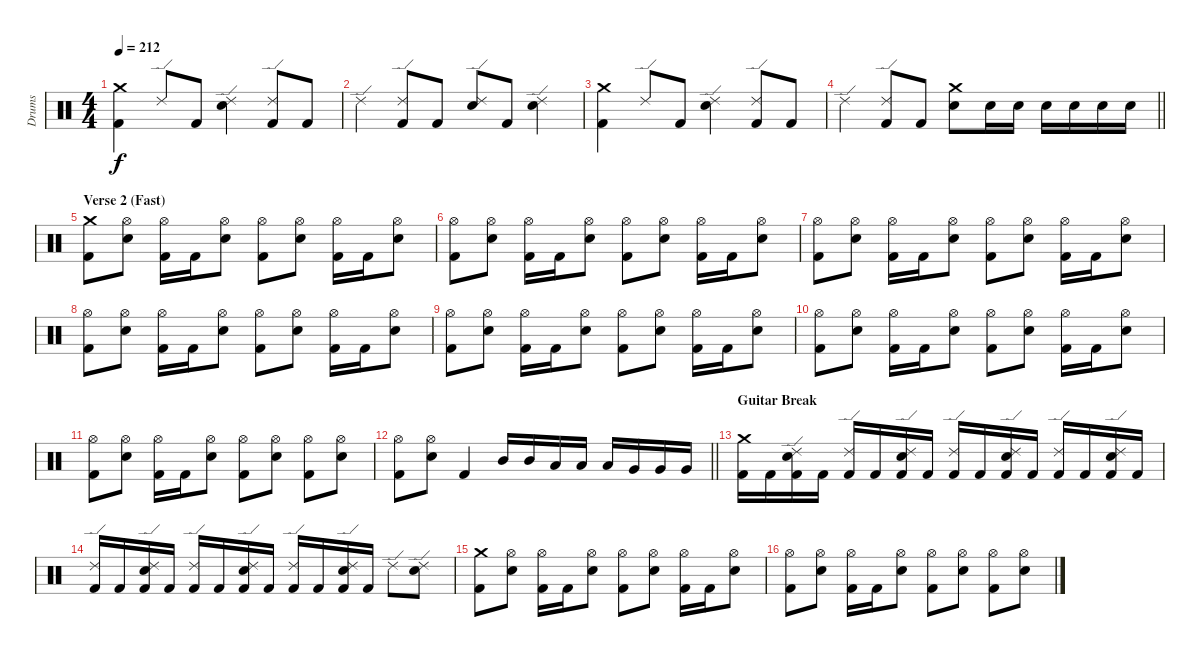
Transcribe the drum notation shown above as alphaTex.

\track ("Drums" "Drums") {instrument percussion}
\staff {score}
\articulation defaults
\ts (4 4)
\tempo 212
\clef neutral
\ks c
("Crash medium (hit)" "Kick (hit) 2").4{dy f} "Ride (edge) 2".8 "Kick (hit) 2".8 ("Ride (edge) 2" "Electric Snare (hit)").4 ("Ride (edge) 2" "Kick (hit) 2").8 "Kick (hit) 2".8 |
"Ride (edge) 2".4 ("Ride (edge) 2" "Kick (hit) 2").8 "Kick (hit) 2".8 ("Ride (edge) 2" "Electric Snare (hit)").8 "Kick (hit) 2".8 ("Ride (edge) 2" "Electric Snare (hit)").4 |
("Crash medium (hit)" "Kick (hit) 2").4 "Ride (edge) 2".8 "Kick (hit) 2".8 ("Ride (edge) 2" "Electric Snare (hit)").4 ("Ride (edge) 2" "Kick (hit) 2").8 "Kick (hit) 2".8 |
\barLineRight lightlight "Ride (edge) 2".4
("Ride (edge) 2" "Kick (hit) 2").8 "Kick (hit) 2".8 ("Crash medium (hit)" "Electric Snare (hit)").8 "Electric Snare (hit)".16 "Electric Snare (hit)".16 "Electric Snare (hit)".16 "Electric Snare (hit)".16 "Electric Snare (hit)".16 "Electric Snare (hit)".16 |
\section ("" "Verse 2 (Fast)")
("Crash medium (hit)" "Kick (hit) 2").8 ("Hi-Hat (open)" "Electric Snare (hit)").8 ("Hi-Hat (open)" "Kick (hit) 2").16 "Kick (hit) 2".16 ("Hi-Hat (open)" "Electric Snare (hit)").8 ("Hi-Hat (open)" "Kick (hit) 2").8 ("Hi-Hat (open)" "Electric Snare (hit)").8 ("Hi-Hat (open)" "Kick (hit) 2").16 "Kick (hit) 2".16 ("Hi-Hat (open)" "Electric Snare (hit)").8 |
("Hi-Hat (open)" "Kick (hit) 2").8 ("Hi-Hat (open)" "Electric Snare (hit)").8 ("Hi-Hat (open)" "Kick (hit) 2").16 "Kick (hit) 2".16 ("Hi-Hat (open)" "Electric Snare (hit)").8 ("Hi-Hat (open)" "Kick (hit) 2").8 ("Hi-Hat (open)" "Electric Snare (hit)").8 ("Hi-Hat (open)" "Kick (hit) 2").16 "Kick (hit) 2".16 ("Hi-Hat (open)" "Electric Snare (hit)").8 |
("Hi-Hat (open)" "Kick (hit) 2").8 ("Hi-Hat (open)" "Electric Snare (hit)").8 ("Hi-Hat (open)" "Kick (hit) 2").16 "Kick (hit) 2".16 ("Hi-Hat (open)" "Electric Snare (hit)").8 ("Hi-Hat (open)" "Kick (hit) 2").8 ("Hi-Hat (open)" "Electric Snare (hit)").8 ("Hi-Hat (open)" "Kick (hit) 2").16 "Kick (hit) 2".16 ("Hi-Hat (open)" "Electric Snare (hit)").8 |
("Hi-Hat (open)" "Kick (hit) 2").8 ("Hi-Hat (open)" "Electric Snare (hit)").8 ("Hi-Hat (open)" "Kick (hit) 2").16 "Kick (hit) 2".16 ("Hi-Hat (open)" "Electric Snare (hit)").8 ("Hi-Hat (open)" "Kick (hit) 2").8 ("Hi-Hat (open)" "Electric Snare (hit)").8 ("Hi-Hat (open)" "Kick (hit) 2").16 "Kick (hit) 2".16 ("Hi-Hat (open)" "Electric Snare (hit)").8 |
("Hi-Hat (open)" "Kick (hit) 2").8 ("Hi-Hat (open)" "Electric Snare (hit)").8 ("Hi-Hat (open)" "Kick (hit) 2").16 "Kick (hit) 2".16 ("Hi-Hat (open)" "Electric Snare (hit)").8 ("Hi-Hat (open)" "Kick (hit) 2").8 ("Hi-Hat (open)" "Electric Snare (hit)").8 ("Hi-Hat (open)" "Kick (hit) 2").16 "Kick (hit) 2".16 ("Hi-Hat (open)" "Electric Snare (hit)").8 |
("Hi-Hat (open)" "Kick (hit) 2").8 ("Hi-Hat (open)" "Electric Snare (hit)").8 ("Hi-Hat (open)" "Kick (hit) 2").16 "Kick (hit) 2".16 ("Hi-Hat (open)" "Electric Snare (hit)").8 ("Hi-Hat (open)" "Kick (hit) 2").8 ("Hi-Hat (open)" "Electric Snare (hit)").8 ("Hi-Hat (open)" "Kick (hit) 2").16 "Kick (hit) 2".16 ("Hi-Hat (open)" "Electric Snare (hit)").8 |
("Hi-Hat (open)" "Kick (hit) 2").8 ("Hi-Hat (open)" "Electric Snare (hit)").8 ("Hi-Hat (open)" "Kick (hit) 2").16 "Kick (hit) 2".16 ("Hi-Hat (open)" "Electric Snare (hit)").8 ("Hi-Hat (open)" "Kick (hit) 2").8 ("Hi-Hat (open)" "Electric Snare (hit)").8 ("Hi-Hat (open)" "Kick (hit) 2").8 ("Hi-Hat (open)" "Electric Snare (hit)").8 |
\barLineRight lightlight
("Hi-Hat (open)" "Kick (hit) 2").8 ("Hi-Hat (open)" "Electric Snare (hit)").8 "Kick (hit) 2".4 "Mid Tom (hit)".16 "Mid Tom (hit)".16 "Low Tom (hit)".16 "Low Tom (hit)".16 "Low Tom (hit)".16 "Very Low Tom (hit)".16 "Very Low Tom (hit)".16 "Very Low Tom (hit)".16 |
\section ("" "Guitar Break")
("Crash medium (hit)" "Kick (hit) 2").16 "Kick (hit) 2".16 ("Ride (edge) 2" "Electric Snare (hit)" "Kick (hit) 2").16 "Kick (hit) 2".16 ("Ride (edge) 2" "Kick (hit) 2").16 "Kick (hit) 2".16 ("Ride (edge) 2" "Electric Snare (hit)" "Kick (hit) 2").16 "Kick (hit) 2".16 ("Ride (edge) 2" "Kick (hit) 2").16 "Kick (hit) 2".16 ("Ride (edge) 2" "Electric Snare (hit)" "Kick (hit) 2").16 "Kick (hit) 2".16 ("Ride (edge) 2" "Kick (hit) 2").16 "Kick (hit) 2".16 ("Ride (edge) 2" "Electric Snare (hit)" "Kick (hit) 2").16 "Kick (hit) 2".16 |
("Ride (edge) 2" "Kick (hit) 2").16 "Kick (hit) 2".16 ("Ride (edge) 2" "Electric Snare (hit)" "Kick (hit) 2").16 "Kick (hit) 2".16 ("Ride (edge) 2" "Kick (hit) 2").16 "Kick (hit) 2".16 ("Ride (edge) 2" "Electric Snare (hit)" "Kick (hit) 2").16 "Kick (hit) 2".16 ("Ride (edge) 2" "Kick (hit) 2").16 "Kick (hit) 2".16 ("Ride (edge) 2" "Electric Snare (hit)" "Kick (hit) 2").16 "Kick (hit) 2".16 "Ride (edge) 2".8 ("Ride (edge) 2" "Electric Snare (hit)").8 |
("Crash medium (hit)" "Kick (hit) 2").8 ("Hi-Hat (open)" "Electric Snare (hit)").8 ("Hi-Hat (open)" "Kick (hit) 2").16 "Kick (hit) 2".16 ("Hi-Hat (open)" "Electric Snare (hit)").8 ("Hi-Hat (open)" "Kick (hit) 2").8 ("Hi-Hat (open)" "Electric Snare (hit)").8 ("Hi-Hat (open)" "Kick (hit) 2").16 "Kick (hit) 2".16 ("Hi-Hat (open)" "Electric Snare (hit)").8 |
("Hi-Hat (open)" "Kick (hit) 2").8 ("Hi-Hat (open)" "Electric Snare (hit)").8 ("Hi-Hat (open)" "Kick (hit) 2").16 "Kick (hit) 2".16 ("Hi-Hat (open)" "Electric Snare (hit)").8 ("Hi-Hat (open)" "Kick (hit) 2").8 ("Hi-Hat (open)" "Electric Snare (hit)").8 ("Hi-Hat (open)" "Kick (hit) 2").8 ("Hi-Hat (open)" "Electric Snare (hit)").8
